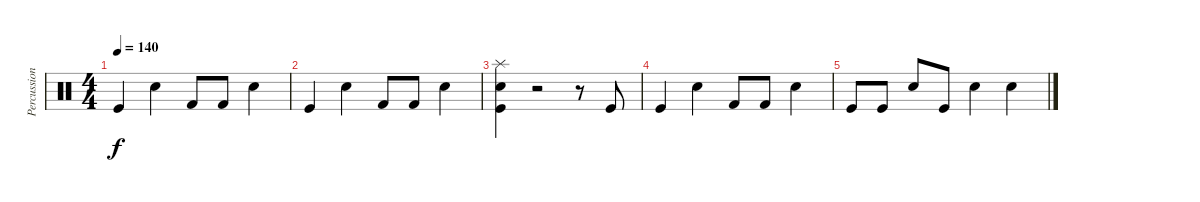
\track ("Percussions" "Percussion") {instrument percussion}
\staff {score}
\articulation defaults
\ts (4 4)
\tempo 140
\clef neutral
\ks c "Kick (hit)".4{dy f} "Snare (hit) 2".4 "Kick (hit) 2".8 "Kick (hit) 2".8 "Snare (hit) 2".4
|
"Kick (hit)".4 "Snare (hit) 2".4 "Kick (hit) 2".8 "Kick (hit) 2".8 "Snare (hit) 2".4 |
("Kick (hit)" "Snare (hit) 2" "Splash (hit)").4 r.2 r.8 "Kick (hit)".8 |
"Kick (hit)".4 "Snare (hit) 2".4 "Kick (hit) 2".8 "Kick (hit) 2".8 "Snare (hit) 2".4 |
"Kick (hit)".8 "Kick (hit)".8 "Snare (hit) 2".8 "Kick (hit)".8 "Snare (hit) 2".4 "Snare (hit) 2".4
